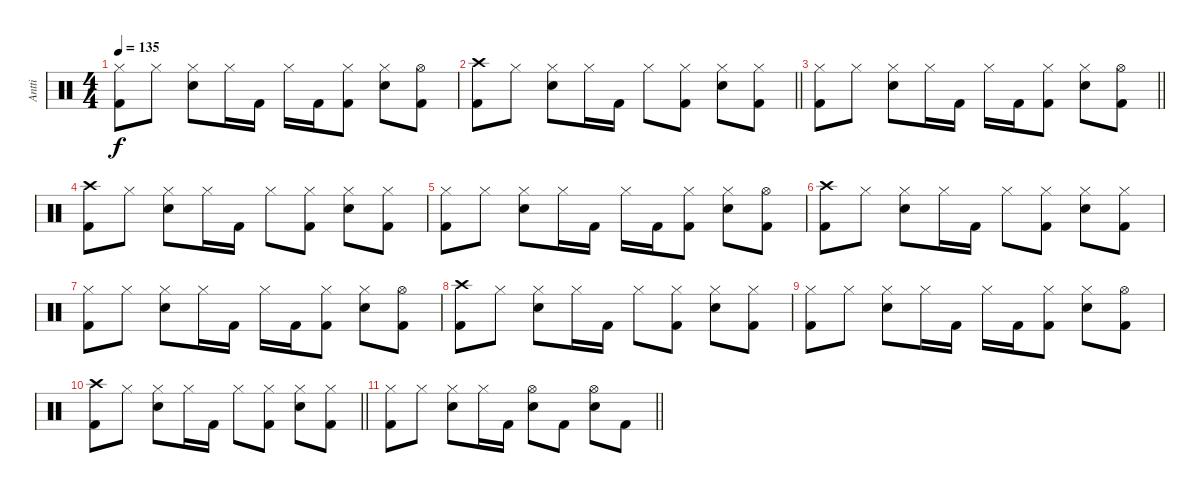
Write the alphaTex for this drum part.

\track ("Antti" "Antti") {instrument percussion}
\staff {score}
\articulation defaults
\ts (4 4)
\tempo 135
\clef neutral
\ks c
("Hi-Hat (closed)" "Kick (hit) 2").8{dy f} "Hi-Hat (closed)".8 ("Hi-Hat (closed)" "Snare (hit) 2").8 "Hi-Hat (closed)".16 "Kick (hit) 2".16 "Hi-Hat (closed)".16 "Kick (hit) 2".16 ("Hi-Hat (closed)" "Kick (hit) 2").8 ("Hi-Hat (closed)" "Snare (hit) 2").8 ("Hi-Hat (open)" "Kick (hit) 2").8 |
\barLineRight lightlight
("Crash high (hit)" "Kick (hit) 2").8 "Hi-Hat (closed)".8 ("Hi-Hat (closed)" "Snare (hit) 2").8 "Hi-Hat (closed)".16 "Kick (hit) 2".16 "Hi-Hat (closed)".8 ("Hi-Hat (closed)" "Kick (hit) 2").8 ("Hi-Hat (closed)" "Snare (hit) 2").8 ("Hi-Hat (closed)" "Kick (hit) 2").8 |
\barLineRight lightlight
("Hi-Hat (closed)" "Kick (hit) 2").8 "Hi-Hat (closed)".8 ("Hi-Hat (closed)" "Snare (hit) 2").8 "Hi-Hat (closed)".16 "Kick (hit) 2".16 "Hi-Hat (closed)".16 "Kick (hit) 2".16 ("Hi-Hat (closed)" "Kick (hit) 2").8 ("Hi-Hat (closed)" "Snare (hit) 2").8 ("Hi-Hat (open)" "Kick (hit) 2").8 |
("Crash high (hit)" "Kick (hit) 2").8 "Hi-Hat (closed)".8 ("Hi-Hat (closed)" "Snare (hit) 2").8 "Hi-Hat (closed)".16 "Kick (hit) 2".16 "Hi-Hat (closed)".8 ("Hi-Hat (closed)" "Kick (hit) 2").8 ("Hi-Hat (closed)" "Snare (hit) 2").8 ("Hi-Hat (closed)" "Kick (hit) 2").8 |
("Hi-Hat (closed)" "Kick (hit) 2").8 "Hi-Hat (closed)".8 ("Hi-Hat (closed)" "Snare (hit) 2").8 "Hi-Hat (closed)".16 "Kick (hit) 2".16 "Hi-Hat (closed)".16 "Kick (hit) 2".16 ("Hi-Hat (closed)" "Kick (hit) 2").8 ("Hi-Hat (closed)" "Snare (hit) 2").8 ("Hi-Hat (open)" "Kick (hit) 2").8 |
("Crash high (hit)" "Kick (hit) 2").8 "Hi-Hat (closed)".8 ("Hi-Hat (closed)" "Snare (hit) 2").8 "Hi-Hat (closed)".16 "Kick (hit) 2".16 "Hi-Hat (closed)".8 ("Hi-Hat (closed)" "Kick (hit) 2").8 ("Hi-Hat (closed)" "Snare (hit) 2").8 ("Hi-Hat (closed)" "Kick (hit) 2").8 |
("Hi-Hat (closed)" "Kick (hit) 2").8 "Hi-Hat (closed)".8 ("Hi-Hat (closed)" "Snare (hit) 2").8 "Hi-Hat (closed)".16 "Kick (hit) 2".16 "Hi-Hat (closed)".16 "Kick (hit) 2".16 ("Hi-Hat (closed)" "Kick (hit) 2").8 ("Hi-Hat (closed)" "Snare (hit) 2").8 ("Hi-Hat (open)" "Kick (hit) 2").8 |
("Crash high (hit)" "Kick (hit) 2").8 "Hi-Hat (closed)".8 ("Hi-Hat (closed)" "Snare (hit) 2").8 "Hi-Hat (closed)".16 "Kick (hit) 2".16 "Hi-Hat (closed)".8 ("Hi-Hat (closed)" "Kick (hit) 2").8 ("Hi-Hat (closed)" "Snare (hit) 2").8 ("Hi-Hat (closed)" "Kick (hit) 2").8 |
("Hi-Hat (closed)" "Kick (hit) 2").8 "Hi-Hat (closed)".8 ("Hi-Hat (closed)" "Snare (hit) 2").8 "Hi-Hat (closed)".16 "Kick (hit) 2".16 "Hi-Hat (closed)".16 "Kick (hit) 2".16 ("Hi-Hat (closed)" "Kick (hit) 2").8 ("Hi-Hat (closed)" "Snare (hit) 2").8 ("Hi-Hat (open)" "Kick (hit) 2").8 |
\barLineRight lightlight
("Crash high (hit)" "Kick (hit) 2").8 "Hi-Hat (closed)".8 ("Hi-Hat (closed)" "Snare (hit) 2").8 "Hi-Hat (closed)".16 "Kick (hit) 2".16 "Hi-Hat (closed)".8 ("Hi-Hat (closed)" "Kick (hit) 2").8 ("Hi-Hat (closed)" "Snare (hit) 2").8 ("Hi-Hat (closed)" "Kick (hit) 2").8 |
\barLineRight lightlight
("Hi-Hat (closed)" "Kick (hit) 2").8 "Hi-Hat (closed)".8 ("Hi-Hat (closed)" "Snare (hit) 2").8 "Hi-Hat (closed)".16 "Kick (hit) 2".16 ("Hi-Hat (open)" "Snare (hit) 2").8 "Kick (hit) 2".8 ("Hi-Hat (open)" "Snare (hit) 2").8 "Kick (hit) 2".8
